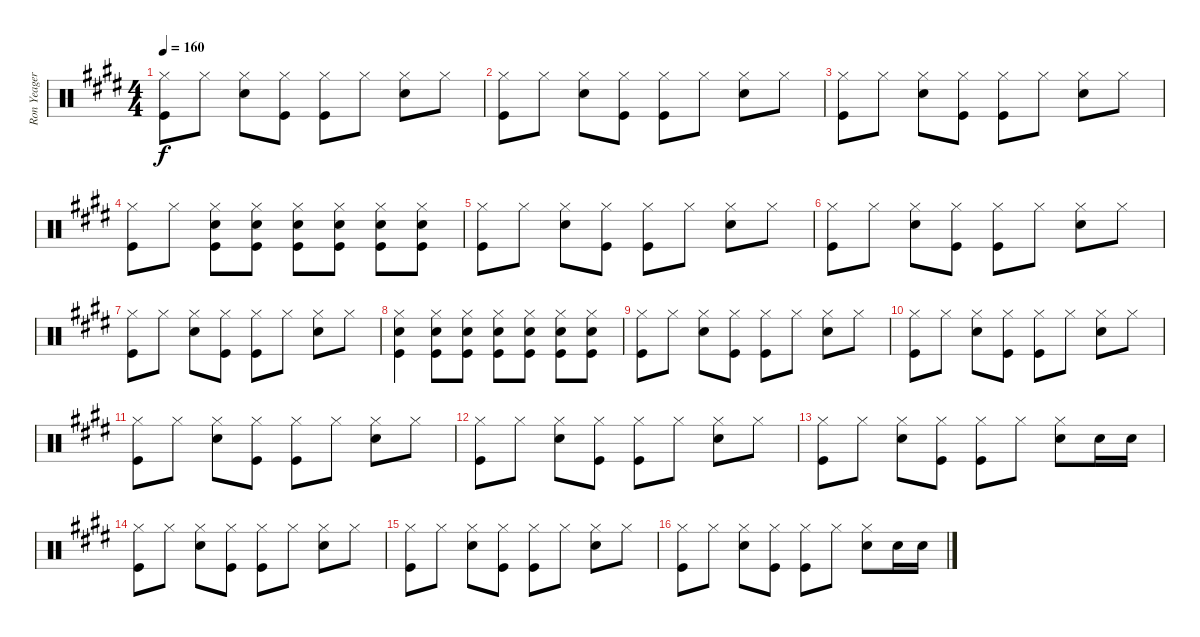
\track ("Ron Yeager Drums" "Ron Yeager") {instrument percussion}
\staff {score}
\articulation defaults
\ts (4 4)
\tempo 160
\clef neutral
\ks e
("Hi-Hat (closed)" "Kick (hit)").8{dy f} "Hi-Hat (closed)".8 ("Hi-Hat (closed)" "Snare (hit) 2").8 ("Hi-Hat (closed)" "Kick (hit)").8 ("Hi-Hat (closed)" "Kick (hit)").8 "Hi-Hat (closed)".8 ("Hi-Hat (closed)" "Snare (hit) 2").8 "Hi-Hat (closed)".8 |
("Hi-Hat (closed)" "Kick (hit)").8 "Hi-Hat (closed)".8 ("Hi-Hat (closed)" "Snare (hit) 2").8 ("Hi-Hat (closed)" "Kick (hit)").8 ("Hi-Hat (closed)" "Kick (hit)").8 "Hi-Hat (closed)".8 ("Hi-Hat (closed)" "Snare (hit) 2").8 "Hi-Hat (closed)".8 |
("Hi-Hat (closed)" "Kick (hit)").8 "Hi-Hat (closed)".8 ("Hi-Hat (closed)" "Snare (hit) 2").8 ("Hi-Hat (closed)" "Kick (hit)").8 ("Hi-Hat (closed)" "Kick (hit)").8 "Hi-Hat (closed)".8 ("Hi-Hat (closed)" "Snare (hit) 2").8 "Hi-Hat (closed)".8 |
("Hi-Hat (closed)" "Kick (hit)").8 "Hi-Hat (closed)".8 ("Hi-Hat (closed)" "Snare (hit) 2" "Kick (hit)").8 ("Hi-Hat (closed)" "Snare (hit) 2" "Kick (hit)").8 ("Hi-Hat (closed)" "Snare (hit) 2" "Kick (hit)").8 ("Hi-Hat (closed)" "Snare (hit) 2" "Kick (hit)").8 ("Hi-Hat (closed)" "Snare (hit) 2" "Kick (hit)").8 ("Hi-Hat (closed)" "Snare (hit) 2" "Kick (hit)").8 |
("Hi-Hat (closed)" "Kick (hit)").8 "Hi-Hat (closed)".8 ("Hi-Hat (closed)" "Snare (hit) 2").8 ("Hi-Hat (closed)" "Kick (hit)").8 ("Hi-Hat (closed)" "Kick (hit)").8 "Hi-Hat (closed)".8 ("Hi-Hat (closed)" "Snare (hit) 2").8 "Hi-Hat (closed)".8 |
("Hi-Hat (closed)" "Kick (hit)").8 "Hi-Hat (closed)".8 ("Hi-Hat (closed)" "Snare (hit) 2").8 ("Hi-Hat (closed)" "Kick (hit)").8 ("Hi-Hat (closed)" "Kick (hit)").8 "Hi-Hat (closed)".8 ("Hi-Hat (closed)" "Snare (hit) 2").8 "Hi-Hat (closed)".8 |
("Hi-Hat (closed)" "Kick (hit)").8 "Hi-Hat (closed)".8 ("Hi-Hat (closed)" "Snare (hit) 2").8 ("Hi-Hat (closed)" "Kick (hit)").8 ("Hi-Hat (closed)" "Kick (hit)").8 "Hi-Hat (closed)".8 ("Hi-Hat (closed)" "Snare (hit) 2").8 "Hi-Hat (closed)".8 |
("Hi-Hat (closed)" "Snare (hit) 2" "Kick (hit)").4 ("Hi-Hat (closed)" "Snare (hit) 2" "Kick (hit)").8 ("Hi-Hat (closed)" "Snare (hit) 2" "Kick (hit)").8 ("Hi-Hat (closed)" "Snare (hit) 2" "Kick (hit)").8 ("Hi-Hat (closed)" "Snare (hit) 2" "Kick (hit)").8 ("Hi-Hat (closed)" "Snare (hit) 2" "Kick (hit)").8 ("Hi-Hat (closed)" "Snare (hit) 2" "Kick (hit)").8 |
("Hi-Hat (closed)" "Kick (hit)").8 "Hi-Hat (closed)".8 ("Hi-Hat (closed)" "Snare (hit) 2").8 ("Hi-Hat (closed)" "Kick (hit)").8 ("Hi-Hat (closed)" "Kick (hit)").8 "Hi-Hat (closed)".8 ("Hi-Hat (closed)" "Snare (hit) 2").8 "Hi-Hat (closed)".8 |
("Hi-Hat (closed)" "Kick (hit)").8 "Hi-Hat (closed)".8 ("Hi-Hat (closed)" "Snare (hit) 2").8 ("Hi-Hat (closed)" "Kick (hit)").8 ("Hi-Hat (closed)" "Kick (hit)").8 "Hi-Hat (closed)".8 ("Hi-Hat (closed)" "Snare (hit) 2").8 "Hi-Hat (closed)".8 |
("Hi-Hat (closed)" "Kick (hit)").8 "Hi-Hat (closed)".8 ("Hi-Hat (closed)" "Snare (hit) 2").8 ("Hi-Hat (closed)" "Kick (hit)").8 ("Hi-Hat (closed)" "Kick (hit)").8 "Hi-Hat (closed)".8 ("Hi-Hat (closed)" "Snare (hit) 2").8 "Hi-Hat (closed)".8 |
("Hi-Hat (closed)" "Kick (hit)").8 "Hi-Hat (closed)".8 ("Hi-Hat (closed)" "Snare (hit) 2").8 ("Hi-Hat (closed)" "Kick (hit)").8 ("Hi-Hat (closed)" "Kick (hit)").8 "Hi-Hat (closed)".8 ("Hi-Hat (closed)" "Snare (hit) 2").8 "Hi-Hat (closed)".8 |
("Hi-Hat (closed)" "Kick (hit)").8 "Hi-Hat (closed)".8 ("Hi-Hat (closed)" "Snare (hit) 2").8 ("Hi-Hat (closed)" "Kick (hit)").8 ("Hi-Hat (closed)" "Kick (hit)").8 "Hi-Hat (closed)".8 ("Hi-Hat (closed)" "Snare (hit) 2").8 "Snare (hit) 2".16 "Snare (hit) 2".16 |
("Hi-Hat (closed)" "Kick (hit)").8 "Hi-Hat (closed)".8 ("Hi-Hat (closed)" "Snare (hit) 2").8 ("Hi-Hat (closed)" "Kick (hit)").8 ("Hi-Hat (closed)" "Kick (hit)").8 "Hi-Hat (closed)".8 ("Hi-Hat (closed)" "Snare (hit) 2").8 "Hi-Hat (closed)".8 |
("Hi-Hat (closed)" "Kick (hit)").8 "Hi-Hat (closed)".8 ("Hi-Hat (closed)" "Snare (hit) 2").8 ("Hi-Hat (closed)" "Kick (hit)").8 ("Hi-Hat (closed)" "Kick (hit)").8 "Hi-Hat (closed)".8 ("Hi-Hat (closed)" "Snare (hit) 2").8 "Hi-Hat (closed)".8 |
("Hi-Hat (closed)" "Kick (hit)").8 "Hi-Hat (closed)".8 ("Hi-Hat (closed)" "Snare (hit) 2").8 ("Hi-Hat (closed)" "Kick (hit)").8 ("Hi-Hat (closed)" "Kick (hit)").8 "Hi-Hat (closed)".8 ("Hi-Hat (closed)" "Snare (hit) 2").8 "Snare (hit) 2".16 "Snare (hit) 2".16
